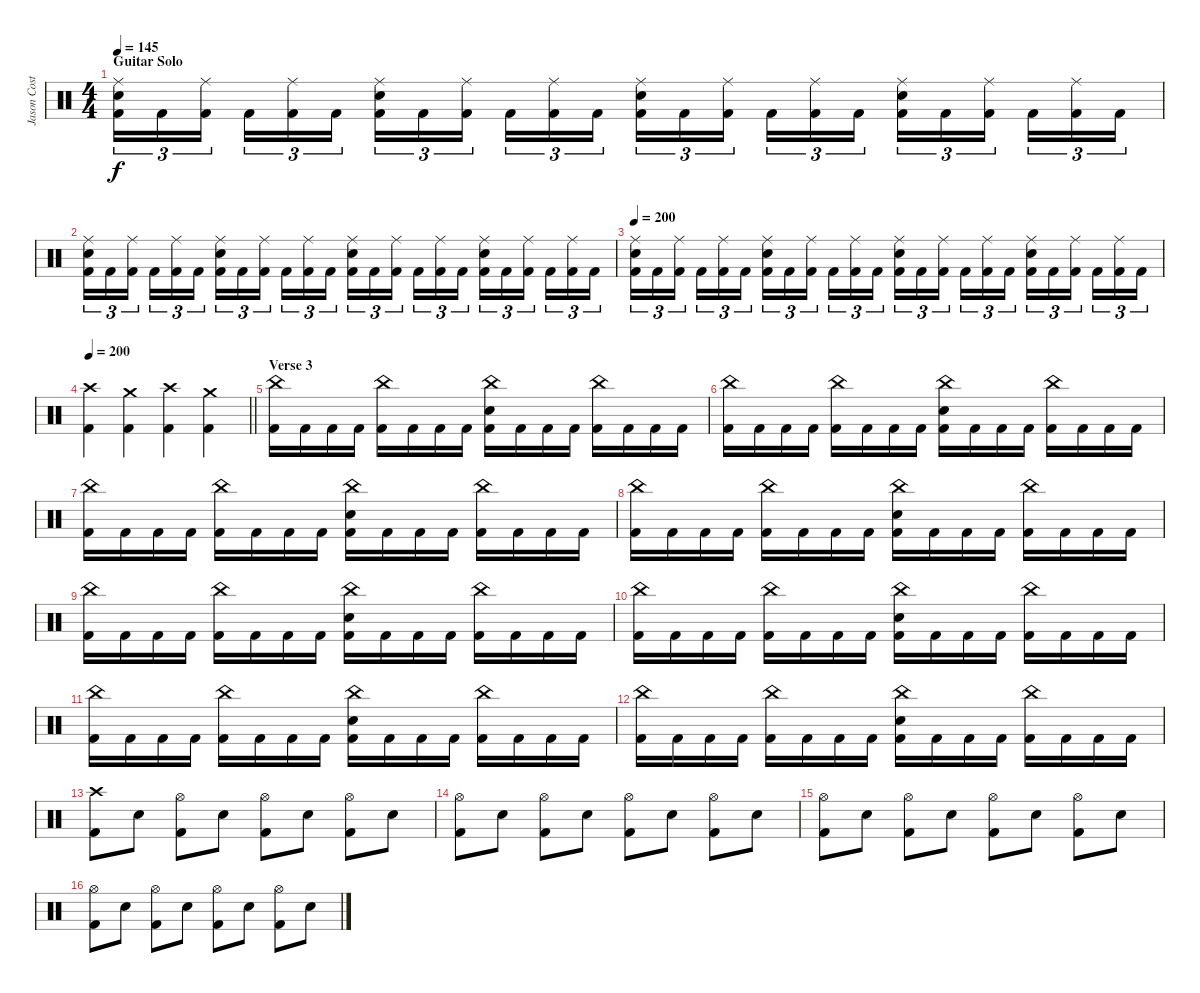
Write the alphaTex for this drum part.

\track ("Jason Costa" "Jason Cost") {instrument percussion}
\staff {score}
\articulation defaults
\ts (4 4)
\section ("" "Guitar Solo")
\tempo 145
\clef neutral
\ks c
("Ride (middle)" "Electric Snare (hit)" "Kick (hit) 2").16{tu (3 2) dy f} "Kick (hit) 2".16{tu (3 2)} ("Ride (middle)" "Kick (hit) 2").16{tu (3 2) beam splitsecondary} "Kick (hit) 2".16{tu (3 2)} ("Ride (middle)" "Kick (hit) 2").16{tu (3 2)} "Kick (hit) 2".16{tu (3 2)} ("Ride (middle)" "Electric Snare (hit)" "Kick (hit) 2").16{tu (3 2)} "Kick (hit) 2".16{tu (3 2)} ("Ride (middle)" "Kick (hit) 2").16{tu (3 2) beam splitsecondary} "Kick (hit) 2".16{tu (3 2)} ("Ride (middle)" "Kick (hit) 2").16{tu (3 2)} "Kick (hit) 2".16{tu (3 2)} ("Ride (middle)" "Electric Snare (hit)" "Kick (hit) 2").16{tu (3 2)} "Kick (hit) 2".16{tu (3 2)} ("Ride (middle)" "Kick (hit) 2").16{tu (3 2) beam splitsecondary} "Kick (hit) 2".16{tu (3 2)} ("Ride (middle)" "Kick (hit) 2").16{tu (3 2)} "Kick (hit) 2".16{tu (3 2)} ("Ride (middle)" "Electric Snare (hit)" "Kick (hit) 2").16{tu (3 2)} "Kick (hit) 2".16{tu (3 2)} ("Ride (middle)" "Kick (hit) 2").16{tu (3 2) beam splitsecondary} "Kick (hit) 2".16{tu (3 2)} ("Ride (middle)" "Kick (hit) 2").16{tu (3 2)} "Kick (hit) 2".16{tu (3 2)} |
("Ride (middle)" "Electric Snare (hit)" "Kick (hit) 2").16{tu (3 2)} "Kick (hit) 2".16{tu (3 2)} ("Ride (middle)" "Kick (hit) 2").16{tu (3 2) beam splitsecondary} "Kick (hit) 2".16{tu (3 2)} ("Ride (middle)" "Kick (hit) 2").16{tu (3 2)} "Kick (hit) 2".16{tu (3 2)} ("Ride (middle)" "Electric Snare (hit)" "Kick (hit) 2").16{tu (3 2)} "Kick (hit) 2".16{tu (3 2)} ("Ride (middle)" "Kick (hit) 2").16{tu (3 2) beam splitsecondary} "Kick (hit) 2".16{tu (3 2)} ("Ride (middle)" "Kick (hit) 2").16{tu (3 2)} "Kick (hit) 2".16{tu (3 2)} ("Ride (middle)" "Electric Snare (hit)" "Kick (hit) 2").16{tu (3 2)} "Kick (hit) 2".16{tu (3 2)} ("Ride (middle)" "Kick (hit) 2").16{tu (3 2) beam splitsecondary} "Kick (hit) 2".16{tu (3 2)} ("Ride (middle)" "Kick (hit) 2").16{tu (3 2)} "Kick (hit) 2".16{tu (3 2)} ("Ride (middle)" "Electric Snare (hit)" "Kick (hit) 2").16{tu (3 2)} "Kick (hit) 2".16{tu (3 2)} ("Ride (middle)" "Kick (hit) 2").16{tu (3 2) beam splitsecondary} "Kick (hit) 2".16{tu (3 2)} ("Ride (middle)" "Kick (hit) 2").16{tu (3 2)} "Kick (hit) 2".16{tu (3 2)} |
\tempo 200
("Ride (middle)" "Electric Snare (hit)" "Kick (hit) 2").16{tu (3 2)} "Kick (hit) 2".16{tu (3 2)} ("Ride (middle)" "Kick (hit) 2").16{tu (3 2) beam splitsecondary} "Kick (hit) 2".16{tu (3 2)} ("Ride (middle)" "Kick (hit) 2").16{tu (3 2)} "Kick (hit) 2".16{tu (3 2)} ("Ride (middle)" "Electric Snare (hit)" "Kick (hit) 2").16{tu (3 2)} "Kick (hit) 2".16{tu (3 2)} ("Ride (middle)" "Kick (hit) 2").16{tu (3 2) beam splitsecondary} "Kick (hit) 2".16{tu (3 2)} ("Ride (middle)" "Kick (hit) 2").16{tu (3 2)} "Kick (hit) 2".16{tu (3 2)} ("Ride (middle)" "Electric Snare (hit)" "Kick (hit) 2").16{tu (3 2)} "Kick (hit) 2".16{tu (3 2)} ("Ride (middle)" "Kick (hit) 2").16{tu (3 2) beam splitsecondary} "Kick (hit) 2".16{tu (3 2)} ("Ride (middle)" "Kick (hit) 2").16{tu (3 2)} "Kick (hit) 2".16{tu (3 2)} ("Ride (middle)" "Electric Snare (hit)" "Kick (hit) 2").16{tu (3 2)} "Kick (hit) 2".16{tu (3 2)} ("Ride (middle)" "Kick (hit) 2").16{tu (3 2) beam splitsecondary} "Kick (hit) 2".16{tu (3 2)} ("Ride (middle)" "Kick (hit) 2").16{tu (3 2)} "Kick (hit) 2".16{tu (3 2)} |
\tempo 200
\barLineRight lightlight
("Crash high (hit)" "Kick (hit) 2").4 ("Crash medium (hit)" "Kick (hit) 2").4 ("Crash high (hit)" "Kick (hit) 2").4 ("Crash medium (hit)" "Kick (hit) 2").4 |
\section ("" "Verse 3")
("China (hit)" "Kick (hit) 2").16 "Kick (hit) 2".16 "Kick (hit) 2".16 "Kick (hit) 2".16 ("China (hit)" "Kick (hit) 2").16 "Kick (hit) 2".16 "Kick (hit) 2".16 "Kick (hit) 2".16 ("China (hit)" "Electric Snare (hit)" "Kick (hit) 2").16 "Kick (hit) 2".16 "Kick (hit) 2".16 "Kick (hit) 2".16 ("China (hit)" "Kick (hit) 2").16 "Kick (hit) 2".16 "Kick (hit) 2".16 "Kick (hit) 2".16 |
("China (hit)" "Kick (hit) 2").16 "Kick (hit) 2".16 "Kick (hit) 2".16 "Kick (hit) 2".16 ("China (hit)" "Kick (hit) 2").16 "Kick (hit) 2".16 "Kick (hit) 2".16 "Kick (hit) 2".16 ("China (hit)" "Electric Snare (hit)" "Kick (hit) 2").16 "Kick (hit) 2".16 "Kick (hit) 2".16 "Kick (hit) 2".16 ("China (hit)" "Kick (hit) 2").16 "Kick (hit) 2".16 "Kick (hit) 2".16 "Kick (hit) 2".16 |
("China (hit)" "Kick (hit) 2").16 "Kick (hit) 2".16 "Kick (hit) 2".16 "Kick (hit) 2".16 ("China (hit)" "Kick (hit) 2").16 "Kick (hit) 2".16 "Kick (hit) 2".16 "Kick (hit) 2".16 ("China (hit)" "Electric Snare (hit)" "Kick (hit) 2").16 "Kick (hit) 2".16 "Kick (hit) 2".16 "Kick (hit) 2".16 ("China (hit)" "Kick (hit) 2").16 "Kick (hit) 2".16 "Kick (hit) 2".16 "Kick (hit) 2".16 |
("China (hit)" "Kick (hit) 2").16 "Kick (hit) 2".16 "Kick (hit) 2".16 "Kick (hit) 2".16 ("China (hit)" "Kick (hit) 2").16 "Kick (hit) 2".16 "Kick (hit) 2".16 "Kick (hit) 2".16 ("China (hit)" "Electric Snare (hit)" "Kick (hit) 2").16 "Kick (hit) 2".16 "Kick (hit) 2".16 "Kick (hit) 2".16 ("China (hit)" "Kick (hit) 2").16 "Kick (hit) 2".16 "Kick (hit) 2".16 "Kick (hit) 2".16 |
("China (hit)" "Kick (hit) 2").16 "Kick (hit) 2".16 "Kick (hit) 2".16 "Kick (hit) 2".16 ("China (hit)" "Kick (hit) 2").16 "Kick (hit) 2".16 "Kick (hit) 2".16 "Kick (hit) 2".16 ("China (hit)" "Electric Snare (hit)" "Kick (hit) 2").16 "Kick (hit) 2".16 "Kick (hit) 2".16 "Kick (hit) 2".16 ("China (hit)" "Kick (hit) 2").16 "Kick (hit) 2".16 "Kick (hit) 2".16 "Kick (hit) 2".16 |
("China (hit)" "Kick (hit) 2").16 "Kick (hit) 2".16 "Kick (hit) 2".16 "Kick (hit) 2".16 ("China (hit)" "Kick (hit) 2").16 "Kick (hit) 2".16 "Kick (hit) 2".16 "Kick (hit) 2".16 ("China (hit)" "Electric Snare (hit)" "Kick (hit) 2").16 "Kick (hit) 2".16 "Kick (hit) 2".16 "Kick (hit) 2".16 ("China (hit)" "Kick (hit) 2").16 "Kick (hit) 2".16 "Kick (hit) 2".16 "Kick (hit) 2".16 |
("China (hit)" "Kick (hit) 2").16 "Kick (hit) 2".16 "Kick (hit) 2".16 "Kick (hit) 2".16 ("China (hit)" "Kick (hit) 2").16 "Kick (hit) 2".16 "Kick (hit) 2".16 "Kick (hit) 2".16 ("China (hit)" "Electric Snare (hit)" "Kick (hit) 2").16 "Kick (hit) 2".16 "Kick (hit) 2".16 "Kick (hit) 2".16 ("China (hit)" "Kick (hit) 2").16 "Kick (hit) 2".16 "Kick (hit) 2".16 "Kick (hit) 2".16 |
("China (hit)" "Kick (hit) 2").16 "Kick (hit) 2".16 "Kick (hit) 2".16 "Kick (hit) 2".16 ("China (hit)" "Kick (hit) 2").16 "Kick (hit) 2".16 "Kick (hit) 2".16 "Kick (hit) 2".16 ("China (hit)" "Electric Snare (hit)" "Kick (hit) 2").16 "Kick (hit) 2".16 "Kick (hit) 2".16 "Kick (hit) 2".16 ("China (hit)" "Kick (hit) 2").16 "Kick (hit) 2".16 "Kick (hit) 2".16 "Kick (hit) 2".16 |
("Crash high (hit)" "Kick (hit) 2").8 "Electric Snare (hit)".8 ("Hi-Hat (open)" "Kick (hit) 2").8 "Electric Snare (hit)".8 ("Hi-Hat (open)" "Kick (hit) 2").8 "Electric Snare (hit)".8 ("Hi-Hat (open)" "Kick (hit) 2").8 "Electric Snare (hit)".8 |
("Hi-Hat (open)" "Kick (hit) 2").8 "Electric Snare (hit)".8 ("Hi-Hat (open)" "Kick (hit) 2").8 "Electric Snare (hit)".8 ("Hi-Hat (open)" "Kick (hit) 2").8 "Electric Snare (hit)".8 ("Hi-Hat (open)" "Kick (hit) 2").8 "Electric Snare (hit)".8 |
("Hi-Hat (open)" "Kick (hit) 2").8 "Electric Snare (hit)".8 ("Hi-Hat (open)" "Kick (hit) 2").8 "Electric Snare (hit)".8 ("Hi-Hat (open)" "Kick (hit) 2").8 "Electric Snare (hit)".8 ("Hi-Hat (open)" "Kick (hit) 2").8 "Electric Snare (hit)".8 |
("Hi-Hat (open)" "Kick (hit) 2").8 "Electric Snare (hit)".8 ("Hi-Hat (open)" "Kick (hit) 2").8 "Electric Snare (hit)".8 ("Hi-Hat (open)" "Kick (hit) 2").8 "Electric Snare (hit)".8 ("Hi-Hat (open)" "Kick (hit) 2").8 "Electric Snare (hit)".8
